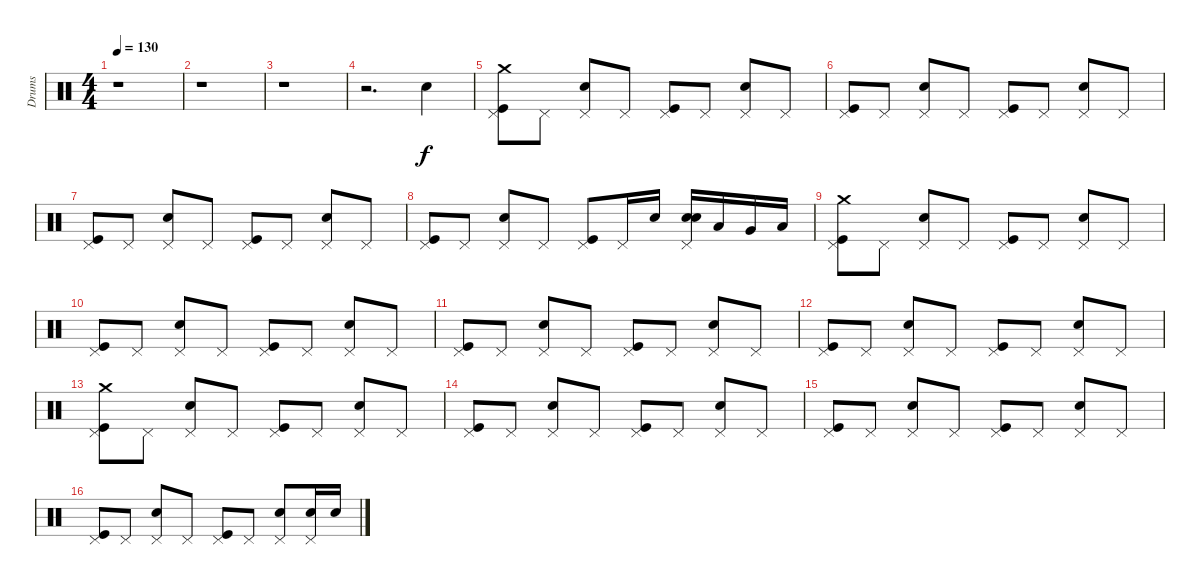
\track ("Drums" "Drums") {instrument percussion}
\staff {score}
\articulation defaults
\ts (4 4)
\tempo 130
\clef neutral
\ks c
r.1{dy f} |
r.1 |
r.1 |
r.2{d} "Electric Snare (hit)".4 |
("Pedal Hi-Hat (hit)" "Kick (hit)" "Crash medium (hit)").8 "Pedal Hi-Hat (hit)".8 ("Pedal Hi-Hat (hit)" "Electric Snare (hit)").8 "Pedal Hi-Hat (hit)".8 ("Pedal Hi-Hat (hit)" "Kick (hit)").8 "Pedal Hi-Hat (hit)".8 ("Pedal Hi-Hat (hit)" "Electric Snare (hit)").8 "Pedal Hi-Hat (hit)".8 |
("Pedal Hi-Hat (hit)" "Kick (hit)").8 "Pedal Hi-Hat (hit)".8 ("Pedal Hi-Hat (hit)" "Electric Snare (hit)").8 "Pedal Hi-Hat (hit)".8 ("Pedal Hi-Hat (hit)" "Kick (hit)").8 "Pedal Hi-Hat (hit)".8 ("Pedal Hi-Hat (hit)" "Electric Snare (hit)").8 "Pedal Hi-Hat (hit)".8 |
("Pedal Hi-Hat (hit)" "Kick (hit)").8 "Pedal Hi-Hat (hit)".8 ("Pedal Hi-Hat (hit)" "Electric Snare (hit)").8 "Pedal Hi-Hat (hit)".8 ("Pedal Hi-Hat (hit)" "Kick (hit)").8 "Pedal Hi-Hat (hit)".8 ("Pedal Hi-Hat (hit)" "Electric Snare (hit)").8 "Pedal Hi-Hat (hit)".8 |
("Pedal Hi-Hat (hit)" "Kick (hit)").8 "Pedal Hi-Hat (hit)".8 ("Pedal Hi-Hat (hit)" "Electric Snare (hit)").8 "Pedal Hi-Hat (hit)".8 ("Pedal Hi-Hat (hit)" "Kick (hit)").8 "Pedal Hi-Hat (hit)".16 "Electric Snare (hit)".16 ("Electric Snare (hit)" "Pedal Hi-Hat (hit)" "Electric Snare (hit)").16 "Low Tom (hit)".16 "Very Low Tom (hit)".16 "Low Floor Tom (hit)".16 |
("Pedal Hi-Hat (hit)" "Kick (hit)" "Crash medium (hit)").8 "Pedal Hi-Hat (hit)".8 ("Pedal Hi-Hat (hit)" "Electric Snare (hit)").8 "Pedal Hi-Hat (hit)".8 ("Pedal Hi-Hat (hit)" "Kick (hit)").8 "Pedal Hi-Hat (hit)".8 ("Pedal Hi-Hat (hit)" "Electric Snare (hit)").8 "Pedal Hi-Hat (hit)".8 |
("Pedal Hi-Hat (hit)" "Kick (hit)").8 "Pedal Hi-Hat (hit)".8 ("Pedal Hi-Hat (hit)" "Electric Snare (hit)").8 "Pedal Hi-Hat (hit)".8 ("Pedal Hi-Hat (hit)" "Kick (hit)").8 "Pedal Hi-Hat (hit)".8 ("Pedal Hi-Hat (hit)" "Electric Snare (hit)").8 "Pedal Hi-Hat (hit)".8 |
("Pedal Hi-Hat (hit)" "Kick (hit)").8 "Pedal Hi-Hat (hit)".8 ("Pedal Hi-Hat (hit)" "Electric Snare (hit)").8 "Pedal Hi-Hat (hit)".8 ("Pedal Hi-Hat (hit)" "Kick (hit)").8 "Pedal Hi-Hat (hit)".8 ("Pedal Hi-Hat (hit)" "Electric Snare (hit)").8 "Pedal Hi-Hat (hit)".8 |
("Pedal Hi-Hat (hit)" "Kick (hit)").8 "Pedal Hi-Hat (hit)".8 ("Pedal Hi-Hat (hit)" "Electric Snare (hit)").8 "Pedal Hi-Hat (hit)".8 ("Pedal Hi-Hat (hit)" "Kick (hit)").8 "Pedal Hi-Hat (hit)".8 ("Pedal Hi-Hat (hit)" "Electric Snare (hit)").8 "Pedal Hi-Hat (hit)".8 |
("Pedal Hi-Hat (hit)" "Kick (hit)" "Crash medium (hit)").8 "Pedal Hi-Hat (hit)".8 ("Pedal Hi-Hat (hit)" "Electric Snare (hit)").8 "Pedal Hi-Hat (hit)".8 ("Pedal Hi-Hat (hit)" "Kick (hit)").8 "Pedal Hi-Hat (hit)".8 ("Pedal Hi-Hat (hit)" "Electric Snare (hit)").8 "Pedal Hi-Hat (hit)".8 |
("Pedal Hi-Hat (hit)" "Kick (hit)").8 "Pedal Hi-Hat (hit)".8 ("Pedal Hi-Hat (hit)" "Electric Snare (hit)").8 "Pedal Hi-Hat (hit)".8 ("Pedal Hi-Hat (hit)" "Kick (hit)").8 "Pedal Hi-Hat (hit)".8 ("Pedal Hi-Hat (hit)" "Electric Snare (hit)").8 "Pedal Hi-Hat (hit)".8 |
("Pedal Hi-Hat (hit)" "Kick (hit)").8 "Pedal Hi-Hat (hit)".8 ("Pedal Hi-Hat (hit)" "Electric Snare (hit)").8 "Pedal Hi-Hat (hit)".8 ("Pedal Hi-Hat (hit)" "Kick (hit)").8 "Pedal Hi-Hat (hit)".8 ("Pedal Hi-Hat (hit)" "Electric Snare (hit)").8 "Pedal Hi-Hat (hit)".8 |
("Pedal Hi-Hat (hit)" "Kick (hit)").8 "Pedal Hi-Hat (hit)".8 ("Pedal Hi-Hat (hit)" "Electric Snare (hit)").8 "Pedal Hi-Hat (hit)".8 ("Pedal Hi-Hat (hit)" "Kick (hit)").8 "Pedal Hi-Hat (hit)".8 ("Pedal Hi-Hat (hit)" "Electric Snare (hit)").8 ("Electric Snare (hit)" "Pedal Hi-Hat (hit)").16 "Electric Snare (hit)".16
